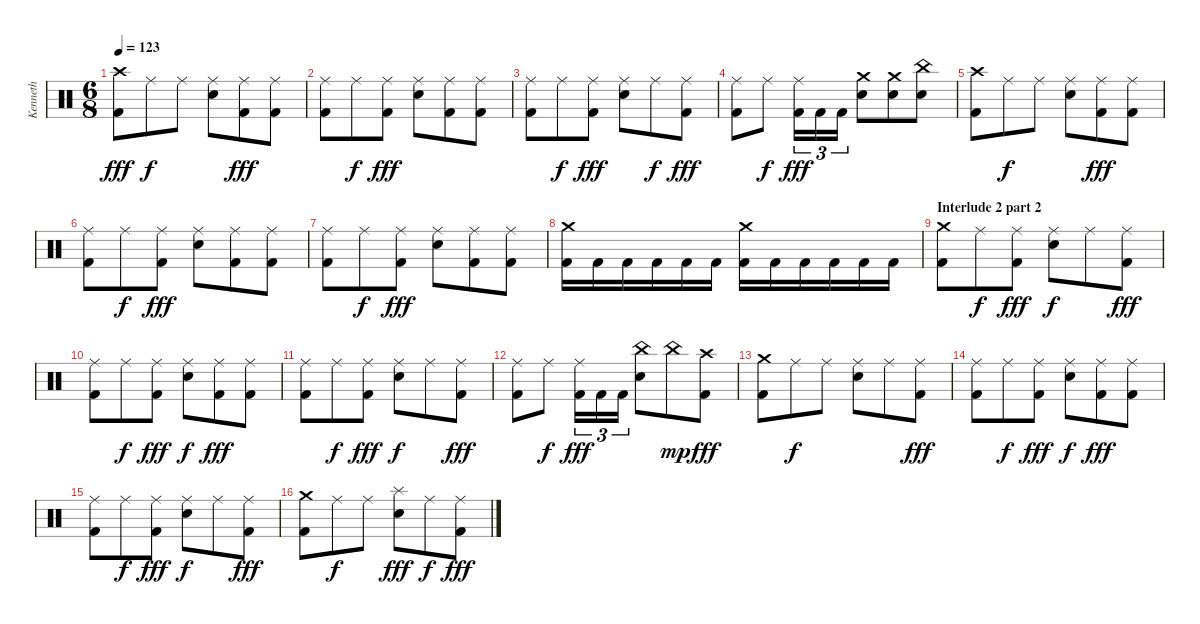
\track ("Kenneth" "Kenneth") {instrument percussion}
\staff {score}
\articulation defaults
\ts (6 8)
\tempo 123
\clef neutral
\ks c
("Crash high (hit)" "Kick (hit) 2").8{dy fff} "Ride (middle)".8{dy f} "Ride (middle)".8 ("Ride (middle)" "Snare (hit) 2").8 ("Ride (middle)" "Kick (hit) 2").8{dy fff} ("Ride (middle)" "Kick (hit) 2").8 |
("Ride (middle)" "Kick (hit) 2").8 "Ride (middle)".8{dy f} ("Ride (middle)" "Kick (hit) 2").8{dy fff} ("Ride (middle)" "Snare (hit) 2").8 ("Ride (middle)" "Kick (hit) 2").8 ("Ride (middle)" "Kick (hit) 2").8 |
("Ride (middle)" "Kick (hit) 2").8 "Ride (middle)".8{dy f} ("Ride (middle)" "Kick (hit) 2").8{dy fff} ("Ride (middle)" "Snare (hit) 2").8 "Ride (middle)".8{dy f} ("Ride (middle)" "Kick (hit) 2").8{dy fff} |
("Ride (middle)" "Kick (hit) 2").8 "Ride (middle)".8{dy f} ("Ride (middle)" "Kick (hit) 2").16{tu (3 2) dy fff} "Kick (hit) 2".16{tu (3 2)} "Kick (hit) 2".16{tu (3 2)} ("Crash medium (hit)" "Snare (hit) 2").8 ("Crash medium (hit)" "Snare (hit) 2").8 ("China (hit)" "Snare (hit) 2").8 |
("Crash high (hit)" "Kick (hit) 2").8 "Ride (middle)".8{dy f} "Ride (middle)".8 ("Ride (middle)" "Snare (hit) 2").8 ("Ride (middle)" "Kick (hit) 2").8{dy fff} ("Ride (middle)" "Kick (hit) 2").8 |
("Ride (middle)" "Kick (hit) 2").8 "Ride (middle)".8{dy f} ("Ride (middle)" "Kick (hit) 2").8{dy fff} ("Ride (middle)" "Snare (hit) 2").8 ("Ride (middle)" "Kick (hit) 2").8 ("Ride (middle)" "Kick (hit) 2").8 |
("Ride (middle)" "Kick (hit) 2").8 "Ride (middle)".8{dy f} ("Ride (middle)" "Kick (hit) 2").8{dy fff} ("Ride (middle)" "Snare (hit) 2").8 ("Ride (middle)" "Kick (hit) 2").8 ("Ride (middle)" "Kick (hit) 2").8 |
("Crash medium (hit)" "Kick (hit) 2").16 "Kick (hit) 2".16 "Kick (hit) 2".16 "Kick (hit) 2".16 "Kick (hit) 2".16 "Kick (hit) 2".16 ("Crash medium (hit)" "Kick (hit) 2").16 "Kick (hit) 2".16 "Kick (hit) 2".16 "Kick (hit) 2".16 "Kick (hit) 2".16 "Kick (hit) 2".16 |
\section ("" "Interlude 2 part 2")
("Crash medium (hit)" "Kick (hit) 2").8 "Ride (middle)".8{dy f} ("Ride (middle)" "Kick (hit) 2").8{dy fff} ("Ride (middle)" "Snare (hit) 2").8{dy f} "Ride (middle)".8 ("Ride (middle)" "Kick (hit) 2").8{dy fff} |
("Ride (middle)" "Kick (hit) 2").8 "Ride (middle)".8{dy f} ("Ride (middle)" "Kick (hit) 2").8{dy fff} ("Ride (middle)" "Snare (hit) 2").8{dy f} ("Ride (middle)" "Kick (hit) 2").8{dy fff} ("Ride (middle)" "Kick (hit) 2").8 |
("Ride (middle)" "Kick (hit) 2").8 "Ride (middle)".8{dy f} ("Ride (middle)" "Kick (hit) 2").8{dy fff} ("Ride (middle)" "Snare (hit) 2").8{dy f} "Ride (middle)".8 ("Ride (middle)" "Kick (hit) 2").8{dy fff} |
("Ride (middle)" "Kick (hit) 2").8 "Ride (middle)".8{dy f} ("Ride (middle)" "Kick (hit) 2").16{tu (3 2) dy fff} "Kick (hit) 2".16{tu (3 2)} "Kick (hit) 2".16{tu (3 2)} ("China (hit)" "Snare (hit) 2").8 "China (hit)".8{dy mp} ("Crash high (hit)" "Kick (hit) 2").8{dy fff} |
("Crash medium (hit)" "Kick (hit) 2").8 "Ride (middle)".8{dy f} "Ride (middle)".8 ("Ride (middle)" "Snare (hit) 2").8 "Ride (middle)".8 ("Ride (middle)" "Kick (hit) 2").8{dy fff} |
("Ride (middle)" "Kick (hit) 2").8 "Ride (middle)".8{dy f} ("Ride (middle)" "Kick (hit) 2").8{dy fff} ("Ride (middle)" "Snare (hit) 2").8{dy f} ("Ride (middle)" "Kick (hit) 2").8{dy fff} ("Ride (middle)" "Kick (hit) 2").8 |
("Ride (middle)" "Kick (hit) 2").8 "Ride (middle)".8{dy f} ("Ride (middle)" "Kick (hit) 2").8{dy fff} ("Ride (middle)" "Snare (hit) 2").8{dy f} "Ride (middle)".8 ("Ride (middle)" "Kick (hit) 2").8{dy fff} |
("Crash medium (hit)" "Kick (hit) 2").8 "Ride (middle)".8{dy f} "Ride (middle)".8 ("Splash (hit)" "Snare (hit) 2").8{dy fff} "Ride (middle)".8{dy f} ("Ride (middle)" "Kick (hit) 2").8{dy fff}
